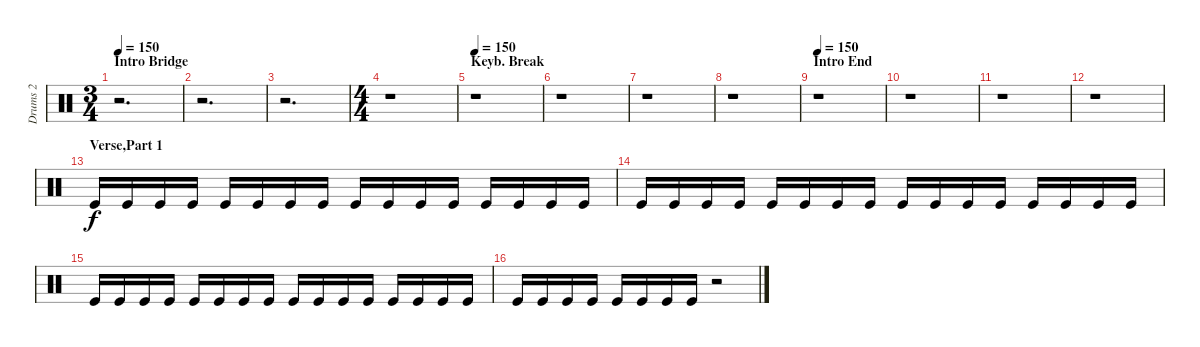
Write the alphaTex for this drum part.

\track ("Drums 2" "Drums 2") {instrument percussion}
\staff {score}
\articulation defaults
\ts (3 4)
\section ("" "Intro Bridge")
\tempo 150
\clef neutral
\ks c
r.2{d dy f} |
r.2{d} |
r.2{d} |
\ts (4 4)
r.1 |
\section ("" "Keyb. Break")
\tempo 150
r.1 |
r.1 |
r.1 |
r.1 |
\section ("" "Intro End")
\tempo 150
r.1 |
r.1 |
r.1 |
r.1 |
\section ("" "Verse,Part 1")
"Kick (hit)".16 "Kick (hit)".16 "Kick (hit)".16 "Kick (hit)".16 "Kick (hit)".16 "Kick (hit)".16 "Kick (hit)".16 "Kick (hit)".16 "Kick (hit)".16 "Kick (hit)".16 "Kick (hit)".16 "Kick (hit)".16 "Kick (hit)".16 "Kick (hit)".16 "Kick (hit)".16 "Kick (hit)".16 |
"Kick (hit)".16 "Kick (hit)".16 "Kick (hit)".16 "Kick (hit)".16 "Kick (hit)".16 "Kick (hit)".16 "Kick (hit)".16 "Kick (hit)".16 "Kick (hit)".16 "Kick (hit)".16 "Kick (hit)".16 "Kick (hit)".16 "Kick (hit)".16 "Kick (hit)".16 "Kick (hit)".16 "Kick (hit)".16 |
"Kick (hit)".16 "Kick (hit)".16 "Kick (hit)".16 "Kick (hit)".16 "Kick (hit)".16 "Kick (hit)".16 "Kick (hit)".16 "Kick (hit)".16 "Kick (hit)".16 "Kick (hit)".16 "Kick (hit)".16 "Kick (hit)".16 "Kick (hit)".16 "Kick (hit)".16 "Kick (hit)".16 "Kick (hit)".16 |
"Kick (hit)".16 "Kick (hit)".16 "Kick (hit)".16 "Kick (hit)".16 "Kick (hit)".16 "Kick (hit)".16 "Kick (hit)".16 "Kick (hit)".16 r.2
